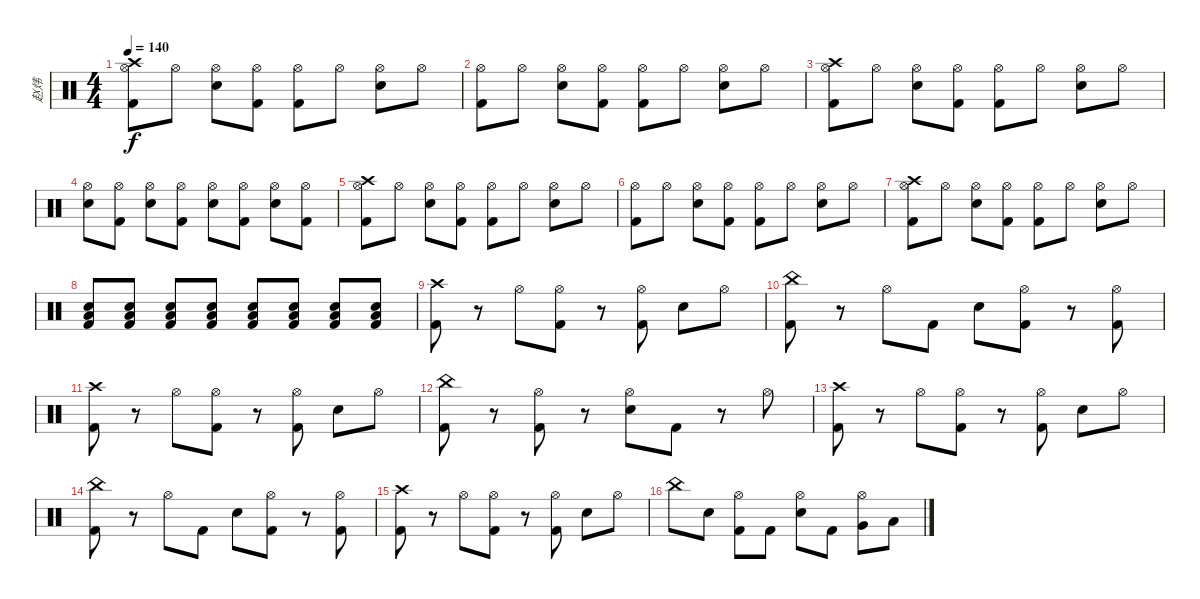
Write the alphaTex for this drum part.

\track ("赵炜" "赵炜") {instrument percussion}
\staff {score}
\articulation defaults
\ts (4 4)
\tempo 140
\clef neutral
\ks c
("Crash high (hit)" "Hi-Hat (open)" "Kick (hit) 2").8{dy f} "Hi-Hat (open)".8 ("Hi-Hat (open)" "Snare (hit) 2").8 ("Hi-Hat (open)" "Kick (hit) 2").8 ("Hi-Hat (open)" "Kick (hit) 2").8 "Hi-Hat (open)".8 ("Hi-Hat (open)" "Snare (hit) 2").8 "Hi-Hat (open)".8 |
("Hi-Hat (open)" "Kick (hit) 2").8 "Hi-Hat (open)".8 ("Hi-Hat (open)" "Snare (hit) 2").8 ("Hi-Hat (open)" "Kick (hit) 2").8 ("Hi-Hat (open)" "Kick (hit) 2").8 "Hi-Hat (open)".8 ("Hi-Hat (open)" "Snare (hit) 2").8 "Hi-Hat (open)".8 |
("Crash high (hit)" "Hi-Hat (open)" "Kick (hit) 2").8 "Hi-Hat (open)".8 ("Hi-Hat (open)" "Snare (hit) 2").8 ("Hi-Hat (open)" "Kick (hit) 2").8 ("Hi-Hat (open)" "Kick (hit) 2").8 "Hi-Hat (open)".8 ("Hi-Hat (open)" "Snare (hit) 2").8 "Hi-Hat (open)".8 |
("Hi-Hat (open)" "Snare (hit) 2").8 ("Hi-Hat (open)" "Kick (hit) 2").8 ("Hi-Hat (open)" "Snare (hit) 2").8 ("Hi-Hat (open)" "Kick (hit) 2").8 ("Hi-Hat (open)" "Snare (hit) 2").8 ("Hi-Hat (open)" "Kick (hit) 2").8 ("Hi-Hat (open)" "Snare (hit) 2").8 ("Hi-Hat (open)" "Kick (hit) 2").8 |
("Crash high (hit)" "Hi-Hat (open)" "Kick (hit) 2").8 "Hi-Hat (open)".8 ("Hi-Hat (open)" "Snare (hit) 2").8 ("Hi-Hat (open)" "Kick (hit) 2").8 ("Hi-Hat (open)" "Kick (hit) 2").8 "Hi-Hat (open)".8 ("Hi-Hat (open)" "Snare (hit) 2").8 "Hi-Hat (open)".8 |
("Hi-Hat (open)" "Kick (hit) 2").8 "Hi-Hat (open)".8 ("Hi-Hat (open)" "Snare (hit) 2").8 ("Hi-Hat (open)" "Kick (hit) 2").8 ("Hi-Hat (open)" "Kick (hit) 2").8 "Hi-Hat (open)".8 ("Hi-Hat (open)" "Snare (hit) 2").8 "Hi-Hat (open)".8 |
("Crash high (hit)" "Hi-Hat (open)" "Kick (hit) 2").8 "Hi-Hat (open)".8 ("Hi-Hat (open)" "Snare (hit) 2").8 ("Hi-Hat (open)" "Kick (hit) 2").8 ("Hi-Hat (open)" "Kick (hit) 2").8 "Hi-Hat (open)".8 ("Hi-Hat (open)" "Snare (hit) 2").8 "Hi-Hat (open)".8 |
("Low Floor Tom (hit)" "Snare (hit) 2" "Kick (hit) 2").8 ("Low Floor Tom (hit)" "Snare (hit) 2" "Kick (hit) 2").8 ("Low Floor Tom (hit)" "Snare (hit) 2" "Kick (hit) 2").8 ("Low Floor Tom (hit)" "Snare (hit) 2" "Kick (hit) 2").8 ("Low Floor Tom (hit)" "Snare (hit) 2" "Kick (hit) 2").8 ("Low Floor Tom (hit)" "Snare (hit) 2" "Kick (hit) 2").8 ("Low Floor Tom (hit)" "Snare (hit) 2" "Kick (hit) 2").8 ("Low Floor Tom (hit)" "Snare (hit) 2" "Kick (hit) 2").8 |
("Crash high (hit)" "Kick (hit) 2").8 r.8 "Hi-Hat (open)".8 ("Hi-Hat (open)" "Kick (hit) 2").8 r.8 ("Hi-Hat (open)" "Kick (hit) 2").8 "Snare (hit) 2".8 "Hi-Hat (open)".8 |
("China (hit)" "Kick (hit) 2").8 r.8 "Hi-Hat (open)".8 "Kick (hit) 2".8 "Snare (hit) 2".8 ("Hi-Hat (open)" "Kick (hit) 2").8 r.8 ("Hi-Hat (open)" "Kick (hit) 2").8 |
("Crash high (hit)" "Kick (hit) 2").8 r.8 "Hi-Hat (open)".8 ("Hi-Hat (open)" "Kick (hit) 2").8 r.8 ("Hi-Hat (open)" "Kick (hit) 2").8 "Snare (hit) 2".8 "Hi-Hat (open)".8 |
("China (hit)" "Kick (hit) 2").8 r.8 ("Hi-Hat (open)" "Kick (hit) 2").8 r.8 ("Hi-Hat (open)" "Snare (hit) 2").8 "Kick (hit) 2".8 r.8 "Hi-Hat (open)".8 |
("Crash high (hit)" "Kick (hit) 2").8 r.8 "Hi-Hat (open)".8 ("Hi-Hat (open)" "Kick (hit) 2").8 r.8 ("Hi-Hat (open)" "Kick (hit) 2").8 "Snare (hit) 2".8 "Hi-Hat (open)".8 |
("China (hit)" "Kick (hit) 2").8 r.8 "Hi-Hat (open)".8 "Kick (hit) 2".8 "Snare (hit) 2".8 ("Hi-Hat (open)" "Kick (hit) 2").8 r.8 ("Hi-Hat (open)" "Kick (hit) 2").8 |
("Crash high (hit)" "Kick (hit) 2").8 r.8 "Hi-Hat (open)".8 ("Hi-Hat (open)" "Kick (hit) 2").8 r.8 ("Hi-Hat (open)" "Kick (hit) 2").8 "Snare (hit) 2".8 "Hi-Hat (open)".8 |
"China (hit)".8 "Snare (hit) 2".8 ("Hi-Hat (open)" "Kick (hit) 2").8 "Kick (hit) 2".8 ("Hi-Hat (open)" "Snare (hit) 2").8 "Kick (hit) 2".8 ("Hi-Hat (open)" "Very Low Tom (hit)").8 "Low Floor Tom (hit)".8
